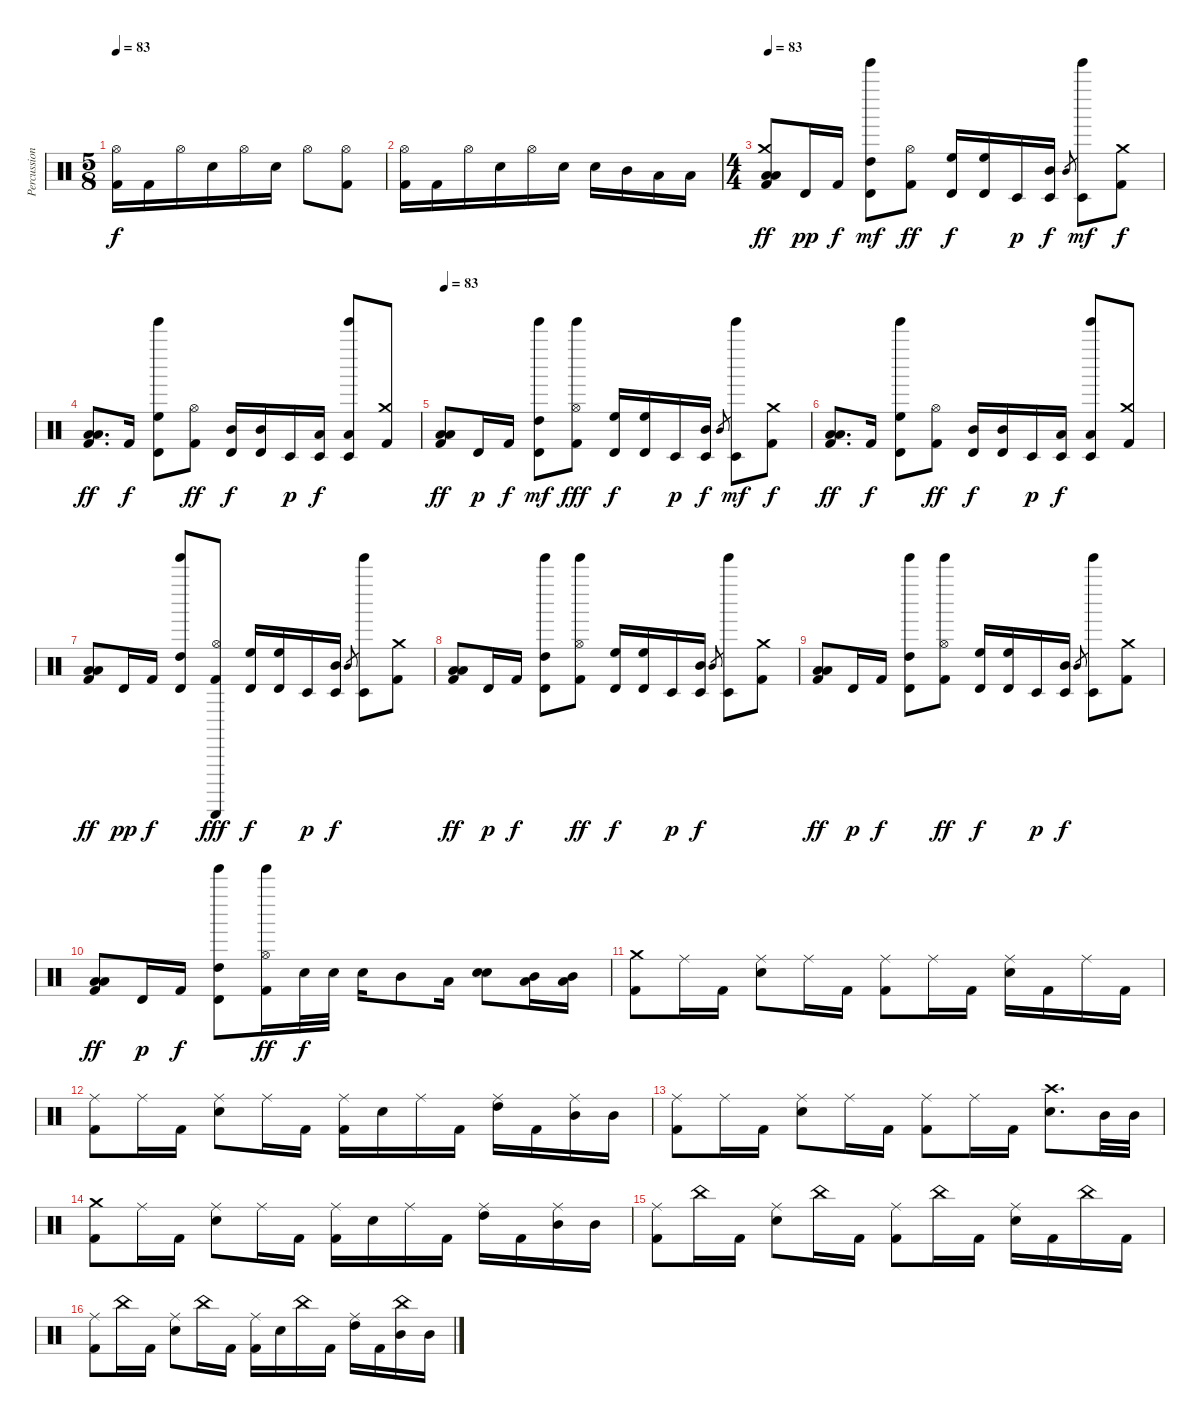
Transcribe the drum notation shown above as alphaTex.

\track ("Percussion" "Percussion") {instrument percussion}
\staff {score}
\articulation defaults
\ts (5 8)
\tempo 83
\clef neutral
\ks c
("Hi-Hat (open)" "Kick (hit) 2").16{dy f} "Kick (hit) 2".16 "Hi-Hat (open)".16 "Electric Snare (hit)".16 "Hi-Hat (open)".16 "Electric Snare (hit)".16 "Hi-Hat (open)".8 ("Hi-Hat (open)" "Kick (hit) 2").8 |
("Hi-Hat (open)" "Kick (hit) 2").16 "Kick (hit) 2".16 "Hi-Hat (open)".16 "Electric Snare (hit)".16 "Hi-Hat (open)".16 "Electric Snare (hit)".16 "Electric Snare (hit)".16 "Mid Tom (hit)".16 "Low Tom (hit)".16 "Low Tom (hit)".16 |
\ts (4 4)
\tempo 83
("Crash medium (hit)" "Low Floor Tom (hit)" "Low Floor Tom (hit)" "Kick (hit) 2").8{dy ff} "Timbale high (hit)".16{dy pp} "Kick (hit) 2".16{dy f} ("Tinkle Bell (hit)" "Timbale high (hit)" "High Tom (hit)").8{bu 120 dy mf} ("Hi-Hat (open)" "Kick (hit) 2").8{dy ff} ("Timbale high (hit)" "High Floor Tom (hit)").16{dy f} ("Timbale high (hit)" "High Floor Tom (hit)").16{bd 480} "Timbale low (hit)".16{dy p} ("Timbale low (hit)" "Mid Tom (hit)").16{dy f} "Mid Tom (hit)".8{gr} ("Tinkle Bell (hit)" "Timbale low (hit)").8{dy mf} ("Crash medium (hit)" "Kick (hit) 2").8{dy f} |
("Low Floor Tom (hit)" "Low Floor Tom (hit)" "Kick (hit) 2").8{d dy ff} "Kick (hit) 2".16{dy f} ("Tinkle Bell (hit)" "Timbale high (hit)" "High Floor Tom (hit)").8{bu 120} ("Hi-Hat (open)" "Kick (hit) 2").8{dy ff} ("Timbale high (hit)" "Mid Tom (hit)").16{dy f} ("Timbale high (hit)" "Mid Tom (hit)").16{bu 480} "Timbale low (hit)".16{dy p} ("Timbale low (hit)" "Low Tom (hit)").16{dy f} ("Tinkle Bell (hit)" "Timbale low (hit)" "Low Tom (hit)").8{bu 120} ("Crash medium (hit)" "Kick (hit) 2").8 |
\tempo 83
("Low Floor Tom (hit)" "Low Floor Tom (hit)" "Kick (hit) 2").8{dy ff} "Timbale high (hit)".16{dy p} "Kick (hit) 2".16{dy f} ("Tinkle Bell (hit)" "Timbale high (hit)" "High Tom (hit)").8{bu 120 dy mf} ("Hi-Hat (open)" "Tinkle Bell (hit)" "Kick (hit) 2").8{dy fff} ("Timbale high (hit)" "High Floor Tom (hit)").16{dy f} ("Timbale high (hit)" "High Floor Tom (hit)").16{bd 480} "Timbale low (hit)".16{dy p} ("Timbale low (hit)" "Mid Tom (hit)").16{dy f} "Mid Tom (hit)".8{gr} ("Tinkle Bell (hit)" "Timbale low (hit)").8{dy mf} ("Crash medium (hit)" "Kick (hit) 2").8{dy f} |
("Low Floor Tom (hit)" "Low Floor Tom (hit)" "Kick (hit) 2").8{d dy ff} "Kick (hit) 2".16{dy f} ("Tinkle Bell (hit)" "Timbale high (hit)" "High Floor Tom (hit)").8{bu 120} ("Hi-Hat (open)" "Kick (hit) 2").8{dy ff} ("Timbale high (hit)" "Mid Tom (hit)").16{dy f} ("Timbale high (hit)" "Mid Tom (hit)").16{bu 480} "Timbale low (hit)".16{dy p} ("Timbale low (hit)" "Low Tom (hit)").16{dy f} ("Tinkle Bell (hit)" "Timbale low (hit)" "Low Tom (hit)").8{bu 120} ("Crash medium (hit)" "Kick (hit) 2").8 |
("Low Floor Tom (hit)" "Low Floor Tom (hit)" "Kick (hit) 2").8{dy ff} "Timbale high (hit)".16{dy pp} "Kick (hit) 2".16{dy f} ("Tinkle Bell (hit)" "Timbale high (hit)" "High Tom (hit)").8{bu 120} ("Hi-Hat (open)" "Guiro (scrap-return)" "Kick (hit) 2").8{dy fff} ("Timbale high (hit)" "High Floor Tom (hit)").16{dy f} ("Timbale high (hit)" "High Floor Tom (hit)").16{bd 480} "Timbale low (hit)".16{dy p} ("Timbale low (hit)" "Mid Tom (hit)").16{dy f} "Mid Tom (hit)".8{gr} ("Tinkle Bell (hit)" "Timbale low (hit)").8 ("Crash medium (hit)" "Kick (hit) 2").8 |
("Low Floor Tom (hit)" "Low Floor Tom (hit)" "Kick (hit) 2").8{dy ff} "Timbale high (hit)".16{dy p} "Kick (hit) 2".16{dy f} ("Tinkle Bell (hit)" "Timbale high (hit)" "High Tom (hit)").8{bu 120} ("Hi-Hat (open)" "Tinkle Bell (hit)" "Kick (hit) 2").8{dy ff} ("Timbale high (hit)" "High Floor Tom (hit)").16{dy f} ("Timbale high (hit)" "High Floor Tom (hit)").16{bd 480} "Timbale low (hit)".16{dy p} ("Timbale low (hit)" "Mid Tom (hit)").16{dy f} "Mid Tom (hit)".8{gr} ("Tinkle Bell (hit)" "Timbale low (hit)").8 ("Crash medium (hit)" "Kick (hit) 2").8 |
("Low Floor Tom (hit)" "Low Floor Tom (hit)" "Kick (hit) 2").8{dy ff} "Timbale high (hit)".16{dy p} "Kick (hit) 2".16{dy f} ("Tinkle Bell (hit)" "Timbale high (hit)" "High Tom (hit)").8{bu 120} ("Hi-Hat (open)" "Tinkle Bell (hit)" "Kick (hit) 2").8{dy ff} ("Timbale high (hit)" "High Floor Tom (hit)").16{dy f} ("Timbale high (hit)" "High Floor Tom (hit)").16{bd 480} "Timbale low (hit)".16{dy p} ("Timbale low (hit)" "Mid Tom (hit)").16{dy f} "Mid Tom (hit)".8{gr} ("Tinkle Bell (hit)" "Timbale low (hit)").8 ("Crash medium (hit)" "Kick (hit) 2").8 |
("Low Floor Tom (hit)" "Low Floor Tom (hit)" "Kick (hit) 2").8{dy ff} "Timbale high (hit)".16{dy p} "Kick (hit) 2".16{dy f} ("Tinkle Bell (hit)" "Timbale high (hit)" "High Tom (hit)").8{bu 120} ("Hi-Hat (open)" "Tinkle Bell (hit)" "Kick (hit) 2").16{dy ff} "Electric Snare (hit)".32{dy f} "Electric Snare (hit)".32 "Electric Snare (hit)".16 "Mid Tom (hit)".8 "Low Tom (hit)".16 ("Electric Snare (hit)" "Electric Snare (hit)").8{bd 60} ("Low Tom (hit)" "Mid Tom (hit)").16{bd 60} ("Low Tom (hit)" "Mid Tom (hit)").16{bd 60} |
("Crash medium (hit)" "Kick (hit) 2").8 "Ride (middle)".16 "Kick (hit) 2".16 ("Ride (middle)" "Electric Snare (hit)").8 "Ride (middle)".16 "Kick (hit) 2".16 ("Ride (middle)" "Kick (hit) 2").8 "Ride (middle)".16 "Kick (hit) 2".16 ("Ride (middle)" "Electric Snare (hit)").16 "Kick (hit) 2".16 "Ride (middle)".16 "Kick (hit) 2".16 |
("Ride (middle)" "Kick (hit) 2").8 "Ride (middle)".16 "Kick (hit) 2".16 ("Ride (middle)" "Electric Snare (hit)").8 "Ride (middle)".16 "Kick (hit) 2".16 ("Ride (middle)" "Kick (hit) 2").16 "Electric Snare (hit)".16 "Ride (middle)".16 "Kick (hit) 2".16 ("Ride (middle)" "High Tom (hit)").16 "Kick (hit) 2".16 ("Ride (middle)" "Mid Tom (hit)").16 "Mid Tom (hit)".16 |
("Ride (middle)" "Kick (hit) 2").8 "Ride (middle)".16 "Kick (hit) 2".16 ("Ride (middle)" "Electric Snare (hit)").8 "Ride (middle)".16 "Kick (hit) 2".16 ("Ride (middle)" "Kick (hit) 2").8 "Ride (middle)".16 "Kick (hit) 2".16 ("Crash high (hit)" "Electric Snare (hit)").8{d} "Mid Tom (hit)".32 "Mid Tom (hit)".32 |
("Crash medium (hit)" "Kick (hit) 2").8 "Ride (middle)".16 "Kick (hit) 2".16 ("Ride (middle)" "Electric Snare (hit)").8 "Ride (middle)".16 "Kick (hit) 2".16 ("Ride (middle)" "Kick (hit) 2").16 "Electric Snare (hit)".16 "Ride (middle)".16 "Kick (hit) 2".16 ("Ride (middle)" "High Tom (hit)").16 "Kick (hit) 2".16 ("Ride (middle)" "Mid Tom (hit)").16 "Mid Tom (hit)".16 |
("Ride (middle)" "Kick (hit) 2").8 "China (hit)".16 "Kick (hit) 2".16 ("Ride (middle)" "Electric Snare (hit)").8 "China (hit)".16 "Kick (hit) 2".16 ("Ride (middle)" "Kick (hit) 2").8 "China (hit)".16 "Kick (hit) 2".16 ("Ride (middle)" "Electric Snare (hit)").16 "Kick (hit) 2".16 "China (hit)".16 "Kick (hit) 2".16 |
("Ride (middle)" "Kick (hit) 2").8 "China (hit)".16 "Kick (hit) 2".16 ("Ride (middle)" "Electric Snare (hit)").8 "China (hit)".16 "Kick (hit) 2".16 ("Ride (middle)" "Kick (hit) 2").16 "Electric Snare (hit)".16 "China (hit)".16 "Kick (hit) 2".16 ("Ride (middle)" "High Tom (hit)").16 "Kick (hit) 2".16 ("China (hit)" "Mid Tom (hit)").16 "Mid Tom (hit)".16
